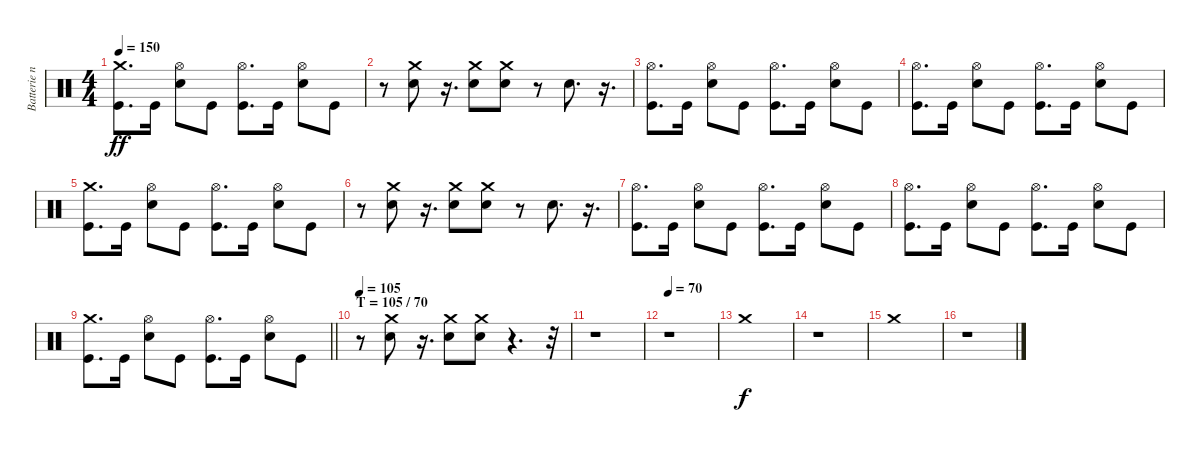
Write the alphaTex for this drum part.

\track ("Batterie n°3" "Batterie n") {instrument percussion}
\staff {score}
\articulation defaults
\ts (4 4)
\tempo 150
\clef neutral
\ks c
("Kick (hit)" "Crash medium (hit)").8{d dy ff} "Kick (hit)".16 ("Snare (hit) 2" "Hi-Hat (open)").8 "Kick (hit)".8 ("Kick (hit)" "Hi-Hat (open)").8{d} "Kick (hit)".16 ("Snare (hit) 2" "Hi-Hat (open)").8 "Kick (hit)".8 |
r.8 ("Snare (hit) 2" "Crash medium (hit)").8 r.16{d} ("Snare (hit) 2" "Crash medium (hit)").8 ("Snare (hit) 2" "Crash medium (hit)").8 r.8 "Snare (hit) 2".8{d} r.16{d} |
("Kick (hit)" "Hi-Hat (open)").8{d} "Kick (hit)".16 ("Snare (hit) 2" "Hi-Hat (open)").8 "Kick (hit)".8 ("Kick (hit)" "Hi-Hat (open)").8{d} "Kick (hit)".16 ("Snare (hit) 2" "Hi-Hat (open)").8 "Kick (hit)".8 |
("Kick (hit)" "Hi-Hat (open)").8{d} "Kick (hit)".16 ("Snare (hit) 2" "Hi-Hat (open)").8 "Kick (hit)".8 ("Kick (hit)" "Hi-Hat (open)").8{d} "Kick (hit)".16 ("Snare (hit) 2" "Hi-Hat (open)").8 "Kick (hit)".8 |
("Kick (hit)" "Crash medium (hit)").8{d} "Kick (hit)".16 ("Snare (hit) 2" "Hi-Hat (open)").8 "Kick (hit)".8 ("Kick (hit)" "Hi-Hat (open)").8{d} "Kick (hit)".16 ("Snare (hit) 2" "Hi-Hat (open)").8 "Kick (hit)".8 |
r.8 ("Snare (hit) 2" "Crash medium (hit)").8 r.16{d} ("Snare (hit) 2" "Crash medium (hit)").8 ("Snare (hit) 2" "Crash medium (hit)").8 r.8 "Snare (hit) 2".8{d} r.16{d} |
("Kick (hit)" "Hi-Hat (open)").8{d} "Kick (hit)".16 ("Snare (hit) 2" "Hi-Hat (open)").8 "Kick (hit)".8 ("Kick (hit)" "Hi-Hat (open)").8{d} "Kick (hit)".16 ("Snare (hit) 2" "Hi-Hat (open)").8 "Kick (hit)".8 |
("Kick (hit)" "Hi-Hat (open)").8{d} "Kick (hit)".16 ("Snare (hit) 2" "Hi-Hat (open)").8 "Kick (hit)".8 ("Kick (hit)" "Hi-Hat (open)").8{d} "Kick (hit)".16 ("Snare (hit) 2" "Hi-Hat (open)").8 "Kick (hit)".8 |
\barLineRight lightlight
("Kick (hit)" "Crash medium (hit)").8{d} "Kick (hit)".16 ("Snare (hit) 2" "Hi-Hat (open)").8 "Kick (hit)".8 ("Kick (hit)" "Hi-Hat (open)").8{d} "Kick (hit)".16 ("Snare (hit) 2" "Hi-Hat (open)").8 "Kick (hit)".8 |
\section ("" "T = 105 / 70")
\tempo 105
r.8 ("Snare (hit) 2" "Crash medium (hit)").8 r.16{d} ("Snare (hit) 2" "Crash medium (hit)").8 ("Snare (hit) 2" "Crash medium (hit)").8 r.4{d} r.32 |
r.1 |
\tempo 70
r.1 |
"Crash medium (hit)".1{dy f} |
r.1 |
"Crash medium (hit)".1 |
r.1
